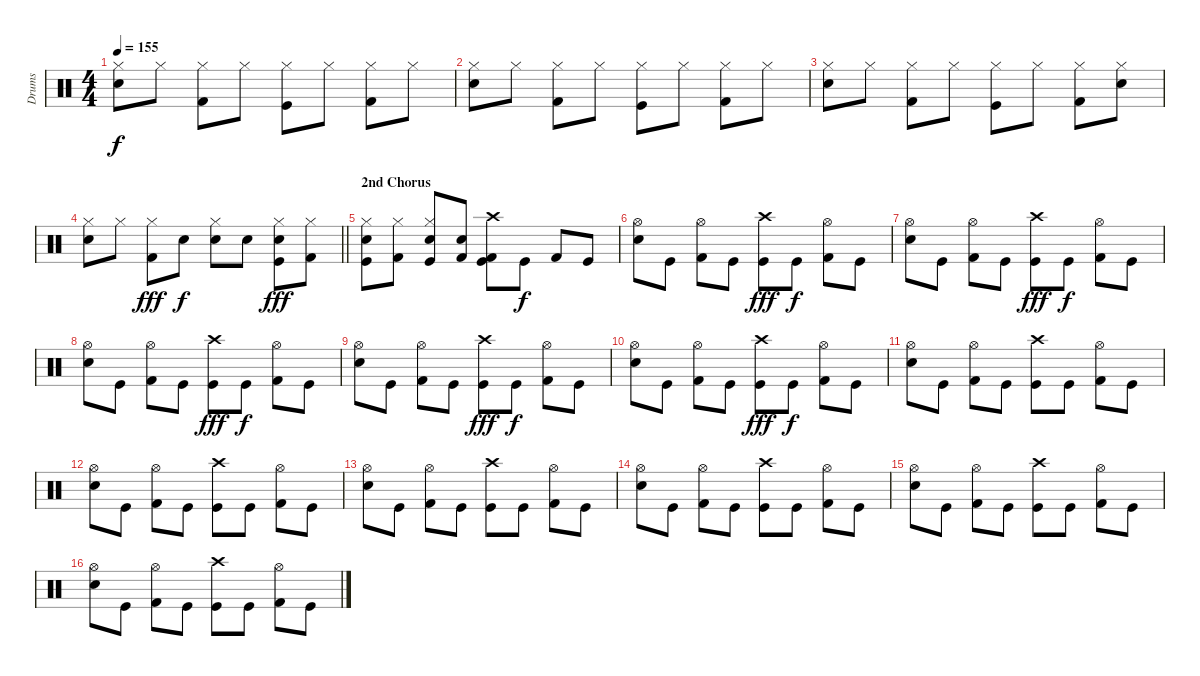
\track ("Drums" "Drums") {instrument percussion}
\staff {score}
\articulation defaults
\ts (4 4)
\tempo 155
\clef neutral
\ks c
("Electric Snare (hit)" "Hi-Hat (closed)").8{dy f} "Hi-Hat (closed)".8 ("Kick (hit) 2" "Hi-Hat (closed)").8 "Hi-Hat (closed)".8 ("Kick (hit)" "Hi-Hat (closed)").8 "Hi-Hat (closed)".8 ("Kick (hit) 2" "Hi-Hat (closed)").8 "Hi-Hat (closed)".8 |
("Electric Snare (hit)" "Hi-Hat (closed)").8 "Hi-Hat (closed)".8 ("Kick (hit) 2" "Hi-Hat (closed)").8 "Hi-Hat (closed)".8 ("Kick (hit)" "Hi-Hat (closed)").8 "Hi-Hat (closed)".8 ("Kick (hit) 2" "Hi-Hat (closed)").8 "Hi-Hat (closed)".8 |
("Electric Snare (hit)" "Hi-Hat (closed)").8 "Hi-Hat (closed)".8 ("Kick (hit) 2" "Hi-Hat (closed)").8 "Hi-Hat (closed)".8 ("Kick (hit)" "Hi-Hat (closed)").8 "Hi-Hat (closed)".8 ("Kick (hit) 2" "Hi-Hat (closed)").8 ("Electric Snare (hit)" "Hi-Hat (closed)").8 |
\barLineRight lightlight
("Electric Snare (hit)" "Hi-Hat (closed)").8 "Hi-Hat (closed)".8 ("Kick (hit) 2" "Hi-Hat (closed)").8{dy fff} "Electric Snare (hit)".8{dy f} ("Electric Snare (hit)" "Hi-Hat (closed)").8 "Electric Snare (hit)".8 ("Electric Snare (hit)" "Kick (hit)" "Hi-Hat (closed)").8{dy fff} ("Kick (hit) 2" "Hi-Hat (closed)").8 |
\section ("" "2nd Chorus")
("Electric Snare (hit)" "Kick (hit)" "Hi-Hat (closed)").8 ("Kick (hit) 2" "Hi-Hat (closed)").8 ("Electric Snare (hit)" "Kick (hit)" "Hi-Hat (closed)").8 ("Electric Snare (hit)" "Kick (hit) 2").8 ("Kick (hit)" "Kick (hit) 2" "Crash high (hit)").8 "Kick (hit)".8{dy f} "Kick (hit) 2".8 "Kick (hit)".8 |
("Electric Snare (hit)" "Hi-Hat (open)").8 "Kick (hit)".8 ("Kick (hit) 2" "Hi-Hat (open)").8 "Kick (hit)".8 ("Kick (hit)" "Crash high (hit)").8{dy fff} "Kick (hit)".8{dy f} ("Kick (hit) 2" "Hi-Hat (open)").8 "Kick (hit)".8 |
("Electric Snare (hit)" "Hi-Hat (open)").8 "Kick (hit)".8 ("Kick (hit) 2" "Hi-Hat (open)").8 "Kick (hit)".8 ("Kick (hit)" "Crash high (hit)").8{dy fff} "Kick (hit)".8{dy f} ("Kick (hit) 2" "Hi-Hat (open)").8 "Kick (hit)".8 |
("Electric Snare (hit)" "Hi-Hat (open)").8 "Kick (hit)".8 ("Kick (hit) 2" "Hi-Hat (open)").8 "Kick (hit)".8 ("Kick (hit)" "Crash high (hit)").8{dy fff} "Kick (hit)".8{dy f} ("Kick (hit) 2" "Hi-Hat (open)").8 "Kick (hit)".8 |
("Electric Snare (hit)" "Hi-Hat (open)").8 "Kick (hit)".8 ("Kick (hit) 2" "Hi-Hat (open)").8 "Kick (hit)".8 ("Kick (hit)" "Crash high (hit)").8{dy fff} "Kick (hit)".8{dy f} ("Kick (hit) 2" "Hi-Hat (open)").8 "Kick (hit)".8 |
("Electric Snare (hit)" "Hi-Hat (open)").8 "Kick (hit)".8 ("Kick (hit) 2" "Hi-Hat (open)").8 "Kick (hit)".8 ("Kick (hit)" "Crash high (hit)").8{dy fff} "Kick (hit)".8{dy f} ("Kick (hit) 2" "Hi-Hat (open)").8 "Kick (hit)".8 |
("Electric Snare (hit)" "Hi-Hat (open)").8 "Kick (hit)".8 ("Kick (hit) 2" "Hi-Hat (open)").8 "Kick (hit)".8 ("Kick (hit)" "Crash high (hit)").8 "Kick (hit)".8 ("Kick (hit) 2" "Hi-Hat (open)").8 "Kick (hit)".8 |
("Electric Snare (hit)" "Hi-Hat (open)").8 "Kick (hit)".8 ("Kick (hit) 2" "Hi-Hat (open)").8 "Kick (hit)".8 ("Kick (hit)" "Crash high (hit)").8 "Kick (hit)".8 ("Kick (hit) 2" "Hi-Hat (open)").8 "Kick (hit)".8 |
("Electric Snare (hit)" "Hi-Hat (open)").8 "Kick (hit)".8 ("Kick (hit) 2" "Hi-Hat (open)").8 "Kick (hit)".8 ("Kick (hit)" "Crash high (hit)").8 "Kick (hit)".8 ("Kick (hit) 2" "Hi-Hat (open)").8 "Kick (hit)".8 |
("Electric Snare (hit)" "Hi-Hat (open)").8 "Kick (hit)".8 ("Kick (hit) 2" "Hi-Hat (open)").8 "Kick (hit)".8 ("Kick (hit)" "Crash high (hit)").8 "Kick (hit)".8 ("Kick (hit) 2" "Hi-Hat (open)").8 "Kick (hit)".8 |
("Electric Snare (hit)" "Hi-Hat (open)").8 "Kick (hit)".8 ("Kick (hit) 2" "Hi-Hat (open)").8 "Kick (hit)".8 ("Kick (hit)" "Crash high (hit)").8 "Kick (hit)".8 ("Kick (hit) 2" "Hi-Hat (open)").8 "Kick (hit)".8 |
("Electric Snare (hit)" "Hi-Hat (open)").8 "Kick (hit)".8 ("Kick (hit) 2" "Hi-Hat (open)").8 "Kick (hit)".8 ("Kick (hit)" "Crash high (hit)").8 "Kick (hit)".8 ("Kick (hit) 2" "Hi-Hat (open)").8 "Kick (hit)".8
